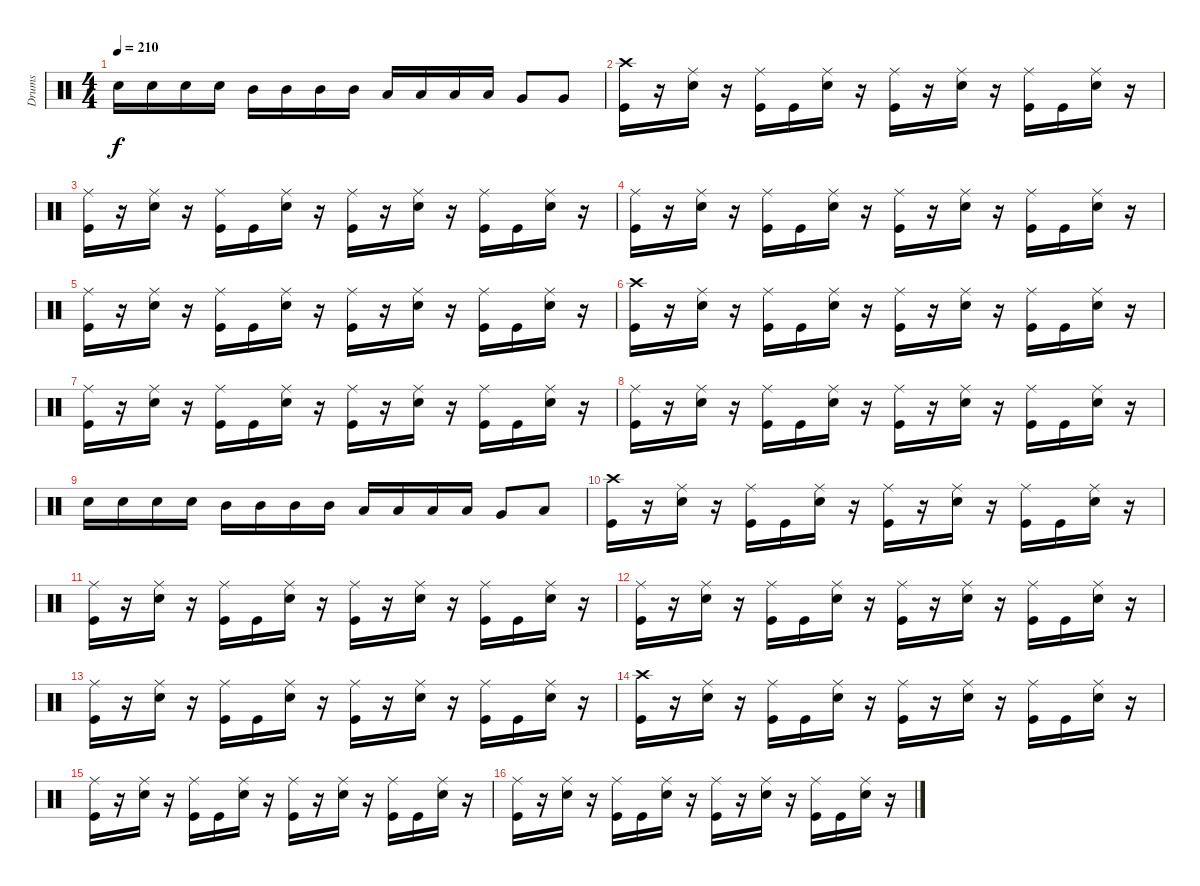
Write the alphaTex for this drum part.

\track ("Drums" "Drums") {instrument percussion}
\staff {score}
\articulation defaults
\ts (4 4)
\tempo 210
\clef neutral
\ks c "Snare (hit) 2".16{dy f} "Snare (hit) 2".16 "Snare (hit) 2".16 "Snare (hit) 2".16 "Mid Tom (hit)".16 "Mid Tom (hit)".16 "Mid Tom (hit)".16 "Mid Tom (hit)".16 "Low Tom (hit)".16 "Low Tom (hit)".16 "Low Tom (hit)".16 "Low Tom (hit)".16 "Very Low Tom (hit)".8 "Very Low Tom (hit)".8
|
("Crash high (hit)" "Kick (hit)").16 r.16 ("Ride (middle)" "Snare (hit) 2").16 r.16 ("Ride (middle)" "Kick (hit)").16 "Kick (hit)".16 ("Ride (middle)" "Snare (hit) 2").16 r.16 ("Ride (middle)" "Kick (hit)").16 r.16 ("Ride (middle)" "Snare (hit) 2").16 r.16 ("Ride (middle)" "Kick (hit)").16 "Kick (hit)".16 ("Ride (middle)" "Snare (hit) 2").16 r.16 |
("Ride (middle)" "Kick (hit)").16 r.16 ("Ride (middle)" "Snare (hit) 2").16 r.16 ("Ride (middle)" "Kick (hit)").16 "Kick (hit)".16 ("Ride (middle)" "Snare (hit) 2").16 r.16 ("Ride (middle)" "Kick (hit)").16 r.16 ("Ride (middle)" "Snare (hit) 2").16 r.16 ("Ride (middle)" "Kick (hit)").16 "Kick (hit)".16 ("Ride (middle)" "Snare (hit) 2").16 r.16 |
("Ride (middle)" "Kick (hit)").16 r.16 ("Ride (middle)" "Snare (hit) 2").16 r.16 ("Ride (middle)" "Kick (hit)").16 "Kick (hit)".16 ("Ride (middle)" "Snare (hit) 2").16 r.16 ("Ride (middle)" "Kick (hit)").16 r.16 ("Ride (middle)" "Snare (hit) 2").16 r.16 ("Ride (middle)" "Kick (hit)").16 "Kick (hit)".16 ("Ride (middle)" "Snare (hit) 2").16 r.16 |
("Ride (middle)" "Kick (hit)").16 r.16 ("Ride (middle)" "Snare (hit) 2").16 r.16 ("Ride (middle)" "Kick (hit)").16 "Kick (hit)".16 ("Ride (middle)" "Snare (hit) 2").16 r.16 ("Ride (middle)" "Kick (hit)").16 r.16 ("Ride (middle)" "Snare (hit) 2").16 r.16 ("Ride (middle)" "Kick (hit)").16 "Kick (hit)".16 ("Ride (middle)" "Snare (hit) 2").16 r.16 |
("Crash high (hit)" "Kick (hit)").16 r.16 ("Ride (middle)" "Snare (hit) 2").16 r.16 ("Ride (middle)" "Kick (hit)").16 "Kick (hit)".16 ("Ride (middle)" "Snare (hit) 2").16 r.16 ("Ride (middle)" "Kick (hit)").16 r.16 ("Ride (middle)" "Snare (hit) 2").16 r.16 ("Ride (middle)" "Kick (hit)").16 "Kick (hit)".16 ("Ride (middle)" "Snare (hit) 2").16 r.16 |
("Ride (middle)" "Kick (hit)").16 r.16 ("Ride (middle)" "Snare (hit) 2").16 r.16 ("Ride (middle)" "Kick (hit)").16 "Kick (hit)".16 ("Ride (middle)" "Snare (hit) 2").16 r.16 ("Ride (middle)" "Kick (hit)").16 r.16 ("Ride (middle)" "Snare (hit) 2").16 r.16 ("Ride (middle)" "Kick (hit)").16 "Kick (hit)".16 ("Ride (middle)" "Snare (hit) 2").16 r.16 |
("Ride (middle)" "Kick (hit)").16 r.16 ("Ride (middle)" "Snare (hit) 2").16 r.16 ("Ride (middle)" "Kick (hit)").16 "Kick (hit)".16 ("Ride (middle)" "Snare (hit) 2").16 r.16 ("Ride (middle)" "Kick (hit)").16 r.16 ("Ride (middle)" "Snare (hit) 2").16 r.16 ("Ride (middle)" "Kick (hit)").16 "Kick (hit)".16 ("Ride (middle)" "Snare (hit) 2").16 r.16 |
"Snare (hit) 2".16 "Snare (hit) 2".16 "Snare (hit) 2".16 "Snare (hit) 2".16 "Mid Tom (hit)".16 "Mid Tom (hit)".16 "Mid Tom (hit)".16 "Mid Tom (hit)".16 "Low Tom (hit)".16 "Low Tom (hit)".16 "Low Tom (hit)".16 "Low Tom (hit)".16 "Very Low Tom (hit)".8 "Low Floor Tom (hit)".8 |
("Crash high (hit)" "Kick (hit)").16 r.16 ("Ride (middle)" "Snare (hit) 2").16 r.16 ("Ride (middle)" "Kick (hit)").16 "Kick (hit)".16 ("Ride (middle)" "Snare (hit) 2").16 r.16 ("Ride (middle)" "Kick (hit)").16 r.16 ("Ride (middle)" "Snare (hit) 2").16 r.16 ("Ride (middle)" "Kick (hit)").16 "Kick (hit)".16 ("Ride (middle)" "Snare (hit) 2").16 r.16 |
("Ride (middle)" "Kick (hit)").16 r.16 ("Ride (middle)" "Snare (hit) 2").16 r.16 ("Ride (middle)" "Kick (hit)").16 "Kick (hit)".16 ("Ride (middle)" "Snare (hit) 2").16 r.16 ("Ride (middle)" "Kick (hit)").16 r.16 ("Ride (middle)" "Snare (hit) 2").16 r.16 ("Ride (middle)" "Kick (hit)").16 "Kick (hit)".16 ("Ride (middle)" "Snare (hit) 2").16 r.16 |
("Ride (middle)" "Kick (hit)").16 r.16 ("Ride (middle)" "Snare (hit) 2").16 r.16 ("Ride (middle)" "Kick (hit)").16 "Kick (hit)".16 ("Ride (middle)" "Snare (hit) 2").16 r.16 ("Ride (middle)" "Kick (hit)").16 r.16 ("Ride (middle)" "Snare (hit) 2").16 r.16 ("Ride (middle)" "Kick (hit)").16 "Kick (hit)".16 ("Ride (middle)" "Snare (hit) 2").16 r.16 |
("Ride (middle)" "Kick (hit)").16 r.16 ("Ride (middle)" "Snare (hit) 2").16 r.16 ("Ride (middle)" "Kick (hit)").16 "Kick (hit)".16 ("Ride (middle)" "Snare (hit) 2").16 r.16 ("Ride (middle)" "Kick (hit)").16 r.16 ("Ride (middle)" "Snare (hit) 2").16 r.16 ("Ride (middle)" "Kick (hit)").16 "Kick (hit)".16 ("Ride (middle)" "Snare (hit) 2").16 r.16 |
("Crash high (hit)" "Kick (hit)").16 r.16 ("Ride (middle)" "Snare (hit) 2").16 r.16 ("Ride (middle)" "Kick (hit)").16 "Kick (hit)".16 ("Ride (middle)" "Snare (hit) 2").16 r.16 ("Ride (middle)" "Kick (hit)").16 r.16 ("Ride (middle)" "Snare (hit) 2").16 r.16 ("Ride (middle)" "Kick (hit)").16 "Kick (hit)".16 ("Ride (middle)" "Snare (hit) 2").16 r.16 |
("Ride (middle)" "Kick (hit)").16 r.16 ("Ride (middle)" "Snare (hit) 2").16 r.16 ("Ride (middle)" "Kick (hit)").16 "Kick (hit)".16 ("Ride (middle)" "Snare (hit) 2").16 r.16 ("Ride (middle)" "Kick (hit)").16 r.16 ("Ride (middle)" "Snare (hit) 2").16 r.16 ("Ride (middle)" "Kick (hit)").16 "Kick (hit)".16 ("Ride (middle)" "Snare (hit) 2").16 r.16 |
("Ride (middle)" "Kick (hit)").16 r.16 ("Ride (middle)" "Snare (hit) 2").16 r.16 ("Ride (middle)" "Kick (hit)").16 "Kick (hit)".16 ("Ride (middle)" "Snare (hit) 2").16 r.16 ("Ride (middle)" "Kick (hit)").16 r.16 ("Ride (middle)" "Snare (hit) 2").16 r.16 ("Ride (middle)" "Kick (hit)").16 "Kick (hit)".16 ("Ride (middle)" "Snare (hit) 2").16 r.16
